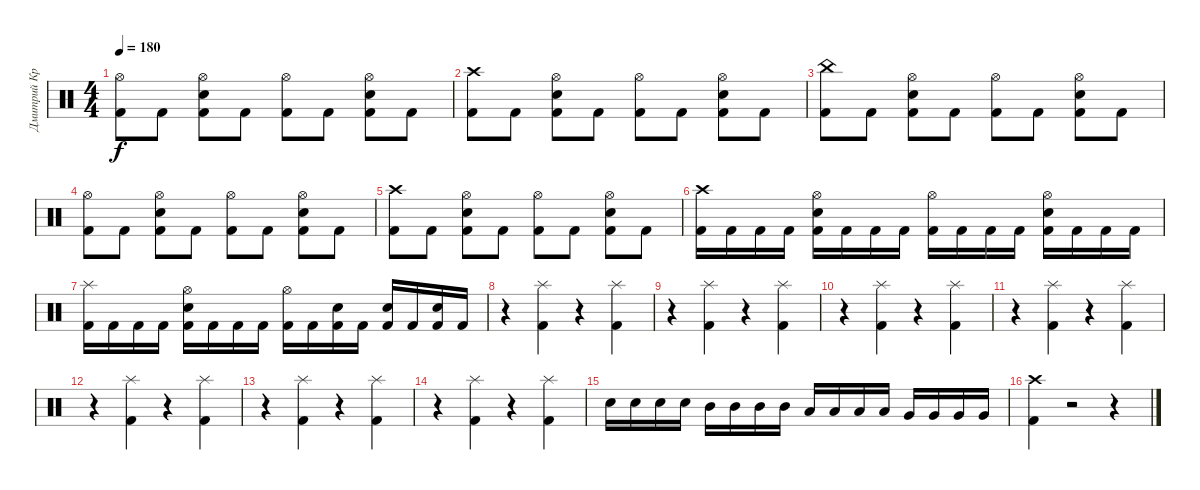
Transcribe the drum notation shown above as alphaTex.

\track ("Дмитрий Кривенков" "Дмитрий Кр") {instrument percussion}
\staff {score}
\articulation defaults
\ts (4 4)
\tempo 180
\clef neutral
\ks c
("Hi-Hat (open)" "Kick (hit) 2").8{dy f} "Kick (hit) 2".8 ("Hi-Hat (open)" "Electric Snare (hit)" "Kick (hit) 2").8 "Kick (hit) 2".8 ("Kick (hit) 2" "Hi-Hat (open)").8 "Kick (hit) 2".8 ("Kick (hit) 2" "Electric Snare (hit)" "Hi-Hat (open)").8 "Kick (hit) 2".8 |
("Crash high (hit)" "Kick (hit) 2").8 "Kick (hit) 2".8 ("Hi-Hat (open)" "Electric Snare (hit)" "Kick (hit) 2").8 "Kick (hit) 2".8 ("Kick (hit) 2" "Hi-Hat (open)").8 "Kick (hit) 2".8 ("Kick (hit) 2" "Electric Snare (hit)" "Hi-Hat (open)").8 "Kick (hit) 2".8 |
("China (hit)" "Kick (hit) 2").8 "Kick (hit) 2".8 ("Hi-Hat (open)" "Electric Snare (hit)" "Kick (hit) 2").8 "Kick (hit) 2".8 ("Kick (hit) 2" "Hi-Hat (open)").8 "Kick (hit) 2".8 ("Kick (hit) 2" "Electric Snare (hit)" "Hi-Hat (open)").8 "Kick (hit) 2".8 |
("Hi-Hat (open)" "Kick (hit) 2").8 "Kick (hit) 2".8 ("Hi-Hat (open)" "Electric Snare (hit)" "Kick (hit) 2").8 "Kick (hit) 2".8 ("Kick (hit) 2" "Hi-Hat (open)").8 "Kick (hit) 2".8 ("Kick (hit) 2" "Electric Snare (hit)" "Hi-Hat (open)").8 "Kick (hit) 2".8 |
("Crash high (hit)" "Kick (hit) 2").8 "Kick (hit) 2".8 ("Hi-Hat (open)" "Electric Snare (hit)" "Kick (hit) 2").8 "Kick (hit) 2".8 ("Kick (hit) 2" "Hi-Hat (open)").8 "Kick (hit) 2".8 ("Kick (hit) 2" "Electric Snare (hit)" "Hi-Hat (open)").8 "Kick (hit) 2".8 |
("Crash high (hit)" "Kick (hit) 2").16 "Kick (hit) 2".16 "Kick (hit) 2".16 "Kick (hit) 2".16 ("Kick (hit) 2" "Electric Snare (hit)" "Hi-Hat (open)").16 "Kick (hit) 2".16 "Kick (hit) 2".16 "Kick (hit) 2".16 ("Kick (hit) 2" "Hi-Hat (open)").16 "Kick (hit) 2".16 "Kick (hit) 2".16 "Kick (hit) 2".16 ("Hi-Hat (open)" "Electric Snare (hit)" "Kick (hit) 2").16 "Kick (hit) 2".16 "Kick (hit) 2".16 "Kick (hit) 2".16 |
("Kick (hit) 2" "Splash (hit)").16 "Kick (hit) 2".16 "Kick (hit) 2".16 "Kick (hit) 2".16 ("Kick (hit) 2" "Electric Snare (hit)" "Hi-Hat (open)").16 "Kick (hit) 2".16 "Kick (hit) 2".16 "Kick (hit) 2".16 ("Hi-Hat (open)" "Kick (hit) 2").16 "Kick (hit) 2".16 ("Electric Snare (hit)" "Kick (hit) 2").16 "Kick (hit) 2".16 ("Kick (hit) 2" "Electric Snare (hit)").16 "Kick (hit) 2".16 ("Electric Snare (hit)" "Kick (hit) 2").16 "Kick (hit) 2".16 |
r.4 ("Splash (hit)" "Kick (hit) 2").4 r.4 ("Kick (hit) 2" "Splash (hit)").4 |
r.4 ("Splash (hit)" "Kick (hit) 2").4 r.4 ("Kick (hit) 2" "Splash (hit)").4 |
r.4 ("Splash (hit)" "Kick (hit) 2").4 r.4 ("Kick (hit) 2" "Splash (hit)").4 |
r.4 ("Splash (hit)" "Kick (hit) 2").4 r.4 ("Kick (hit) 2" "Splash (hit)").4 |
r.4 ("Splash (hit)" "Kick (hit) 2").4 r.4 ("Kick (hit) 2" "Splash (hit)").4 |
r.4 ("Splash (hit)" "Kick (hit) 2").4 r.4 ("Kick (hit) 2" "Splash (hit)").4 |
r.4 ("Splash (hit)" "Kick (hit) 2").4 r.4 ("Kick (hit) 2" "Splash (hit)").4 |
"Snare (hit) 2".16 "Snare (hit) 2".16 "Snare (hit) 2".16 "Electric Snare (hit)".16 "Mid Tom (hit)".16 "Mid Tom (hit)".16 "Mid Tom (hit)".16 "Mid Tom (hit)".16 "Low Tom (hit)".16 "Low Tom (hit)".16 "Low Tom (hit)".16 "Low Tom (hit)".16 "Very Low Tom (hit)".16 "Very Low Tom (hit)".16 "Very Low Tom (hit)".16 "Very Low Tom (hit)".16 |
("Kick (hit) 2" "Crash high (hit)").4 r.2 r.4
